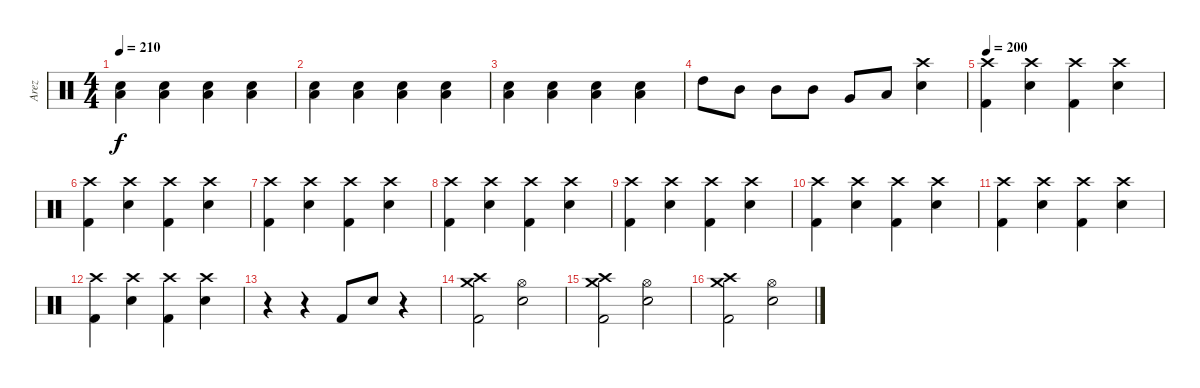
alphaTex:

\track ("Arez" "Arez") {instrument percussion}
\staff {score}
\articulation defaults
\ts (4 4)
\tempo 210
\clef neutral
\ks c
("Electric Snare (hit)" "Low Floor Tom (hit)").4{dy f} ("Electric Snare (hit)" "Low Floor Tom (hit)").4 ("Electric Snare (hit)" "Low Floor Tom (hit)").4 ("Electric Snare (hit)" "Low Floor Tom (hit)").4 |
("Electric Snare (hit)" "Low Floor Tom (hit)").4 ("Electric Snare (hit)" "Low Floor Tom (hit)").4 ("Electric Snare (hit)" "Low Floor Tom (hit)").4 ("Electric Snare (hit)" "Low Floor Tom (hit)").4 |
("Electric Snare (hit)" "Low Floor Tom (hit)").4 ("Electric Snare (hit)" "Low Floor Tom (hit)").4 ("Electric Snare (hit)" "Low Floor Tom (hit)").4 ("Electric Snare (hit)" "Low Floor Tom (hit)").4 |
"High Tom (hit)".8 "Mid Tom (hit)".8 "Mid Tom (hit)".8 "Mid Tom (hit)".8 "Very Low Tom (hit)".8 "Low Floor Tom (hit)".8 ("Electric Snare (hit)" "Crash high (hit)").4 |
\tempo 200
("Kick (hit) 2" "Crash high (hit)").4 ("Crash high (hit)" "Electric Snare (hit)").4 ("Kick (hit) 2" "Crash high (hit)").4 ("Crash high (hit)" "Electric Snare (hit)").4 |
("Kick (hit) 2" "Crash high (hit)").4 ("Crash high (hit)" "Electric Snare (hit)").4 ("Kick (hit) 2" "Crash high (hit)").4 ("Crash high (hit)" "Electric Snare (hit)").4 |
("Kick (hit) 2" "Crash high (hit)").4 ("Crash high (hit)" "Electric Snare (hit)").4 ("Kick (hit) 2" "Crash high (hit)").4 ("Crash high (hit)" "Electric Snare (hit)").4 |
("Kick (hit) 2" "Crash high (hit)").4 ("Crash high (hit)" "Electric Snare (hit)").4 ("Kick (hit) 2" "Crash high (hit)").4 ("Crash high (hit)" "Electric Snare (hit)").4 |
("Kick (hit) 2" "Crash high (hit)").4 ("Crash high (hit)" "Electric Snare (hit)").4 ("Kick (hit) 2" "Crash high (hit)").4 ("Crash high (hit)" "Electric Snare (hit)").4 |
("Kick (hit) 2" "Crash high (hit)").4 ("Crash high (hit)" "Electric Snare (hit)").4 ("Kick (hit) 2" "Crash high (hit)").4 ("Crash high (hit)" "Electric Snare (hit)").4 |
("Kick (hit) 2" "Crash high (hit)").4 ("Crash high (hit)" "Electric Snare (hit)").4 ("Kick (hit) 2" "Crash high (hit)").4 ("Crash high (hit)" "Electric Snare (hit)").4 |
("Kick (hit) 2" "Crash high (hit)").4 ("Crash high (hit)" "Electric Snare (hit)").4 ("Kick (hit) 2" "Crash high (hit)").4 ("Crash high (hit)" "Electric Snare (hit)").4 |
r.4 r.4 "Kick (hit) 2".8 "Electric Snare (hit)".8 r.4 |
("Crash high (hit)" "Crash medium (hit)" "Kick (hit) 2").2 ("Hi-Hat (open)" "Electric Snare (hit)").2 |
("Crash high (hit)" "Crash medium (hit)" "Kick (hit) 2").2 ("Hi-Hat (open)" "Electric Snare (hit)").2 |
("Crash high (hit)" "Crash medium (hit)" "Kick (hit) 2").2 ("Hi-Hat (open)" "Electric Snare (hit)").2
